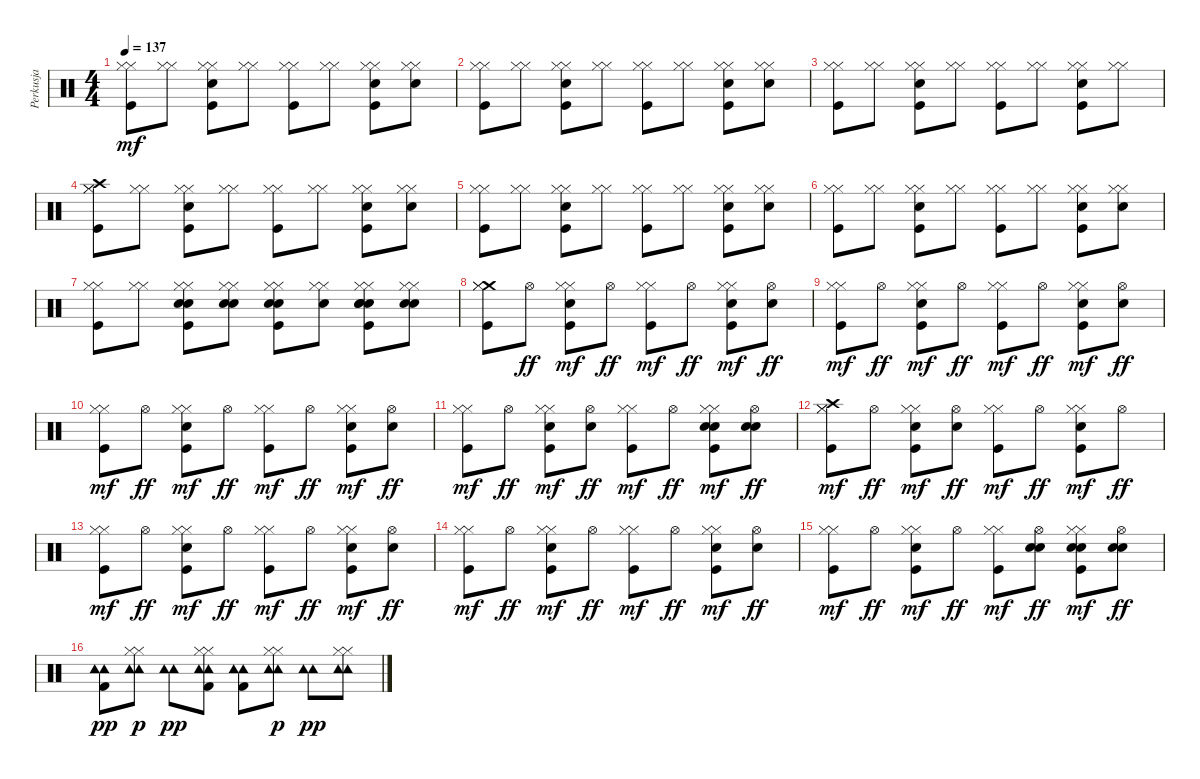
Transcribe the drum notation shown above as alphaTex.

\track ("Perkusja" "Perkusja") {instrument percussion}
\staff {score}
\articulation defaults
\ts (4 4)
\tempo 137
\clef neutral
\ks c
("Kick (hit)" "Hi-Hat (closed)" "Hi-Hat (closed)").8{dy mf} ("Hi-Hat (closed)" "Hi-Hat (closed)").8 ("Electric Snare (hit)" "Kick (hit)" "Hi-Hat (closed)" "Hi-Hat (closed)").8 ("Hi-Hat (closed)" "Hi-Hat (closed)").8 ("Kick (hit)" "Hi-Hat (closed)" "Hi-Hat (closed)").8 ("Hi-Hat (closed)" "Hi-Hat (closed)").8 ("Electric Snare (hit)" "Kick (hit)" "Hi-Hat (closed)" "Hi-Hat (closed)").8 ("Electric Snare (hit)" "Hi-Hat (closed)" "Hi-Hat (closed)").8 |
("Kick (hit)" "Hi-Hat (closed)" "Hi-Hat (closed)").8 ("Hi-Hat (closed)" "Hi-Hat (closed)").8 ("Electric Snare (hit)" "Kick (hit)" "Hi-Hat (closed)" "Hi-Hat (closed)").8 ("Hi-Hat (closed)" "Hi-Hat (closed)").8 ("Kick (hit)" "Hi-Hat (closed)" "Hi-Hat (closed)").8 ("Hi-Hat (closed)" "Hi-Hat (closed)").8 ("Electric Snare (hit)" "Kick (hit)" "Hi-Hat (closed)" "Hi-Hat (closed)").8 ("Electric Snare (hit)" "Hi-Hat (closed)" "Hi-Hat (closed)").8 |
("Kick (hit)" "Hi-Hat (closed)" "Hi-Hat (closed)").8 ("Hi-Hat (closed)" "Hi-Hat (closed)").8 ("Electric Snare (hit)" "Kick (hit)" "Hi-Hat (closed)" "Hi-Hat (closed)").8 ("Hi-Hat (closed)" "Hi-Hat (closed)").8 ("Kick (hit)" "Hi-Hat (closed)" "Hi-Hat (closed)").8 ("Hi-Hat (closed)" "Hi-Hat (closed)").8 ("Electric Snare (hit)" "Kick (hit)" "Hi-Hat (closed)" "Hi-Hat (closed)").8 ("Hi-Hat (closed)" "Hi-Hat (closed)").8 |
("Crash high (hit)" "Kick (hit)" "Hi-Hat (closed)" "Hi-Hat (closed)").8 ("Hi-Hat (closed)" "Hi-Hat (closed)").8 ("Electric Snare (hit)" "Kick (hit)" "Hi-Hat (closed)" "Hi-Hat (closed)").8 ("Hi-Hat (closed)" "Hi-Hat (closed)").8 ("Kick (hit)" "Hi-Hat (closed)" "Hi-Hat (closed)").8 ("Hi-Hat (closed)" "Hi-Hat (closed)").8 ("Electric Snare (hit)" "Kick (hit)" "Hi-Hat (closed)" "Hi-Hat (closed)").8 ("Electric Snare (hit)" "Hi-Hat (closed)" "Hi-Hat (closed)").8 |
("Kick (hit)" "Hi-Hat (closed)" "Hi-Hat (closed)").8 ("Hi-Hat (closed)" "Hi-Hat (closed)").8 ("Electric Snare (hit)" "Kick (hit)" "Hi-Hat (closed)" "Hi-Hat (closed)").8 ("Hi-Hat (closed)" "Hi-Hat (closed)").8 ("Kick (hit)" "Hi-Hat (closed)" "Hi-Hat (closed)").8 ("Hi-Hat (closed)" "Hi-Hat (closed)").8 ("Electric Snare (hit)" "Kick (hit)" "Hi-Hat (closed)" "Hi-Hat (closed)").8 ("Electric Snare (hit)" "Hi-Hat (closed)" "Hi-Hat (closed)").8 |
("Kick (hit)" "Hi-Hat (closed)" "Hi-Hat (closed)").8 ("Hi-Hat (closed)" "Hi-Hat (closed)").8 ("Electric Snare (hit)" "Kick (hit)" "Hi-Hat (closed)" "Hi-Hat (closed)").8 ("Hi-Hat (closed)" "Hi-Hat (closed)").8 ("Kick (hit)" "Hi-Hat (closed)" "Hi-Hat (closed)").8 ("Hi-Hat (closed)" "Hi-Hat (closed)").8 ("Electric Snare (hit)" "Kick (hit)" "Hi-Hat (closed)" "Hi-Hat (closed)").8 ("Electric Snare (hit)" "Hi-Hat (closed)" "Hi-Hat (closed)").8 |
("Kick (hit)" "Hi-Hat (closed)" "Hi-Hat (closed)").8 ("Hi-Hat (closed)" "Hi-Hat (closed)").8 ("Electric Snare (hit)" "Kick (hit)" "Hi-Hat (closed)" "Electric Snare (hit)" "Hi-Hat (closed)").8 ("Electric Snare (hit)" "Hi-Hat (closed)" "Electric Snare (hit)" "Hi-Hat (closed)").8 ("Electric Snare (hit)" "Kick (hit)" "Hi-Hat (closed)" "Electric Snare (hit)" "Hi-Hat (closed)").8 ("Electric Snare (hit)" "Hi-Hat (closed)" "Hi-Hat (closed)").8 ("Electric Snare (hit)" "Electric Snare (hit)" "Kick (hit)" "Hi-Hat (closed)" "Electric Snare (hit)" "Hi-Hat (closed)").8 ("Electric Snare (hit)" "Hi-Hat (closed)" "Electric Snare (hit)" "Hi-Hat (closed)").8 |
("Crash medium (hit)" "Kick (hit)" "Hi-Hat (closed)" "Hi-Hat (closed)").8 "Hi-Hat (open)".8{dy ff} ("Electric Snare (hit)" "Kick (hit)" "Hi-Hat (closed)" "Hi-Hat (closed)").8{dy mf} "Hi-Hat (open)".8{dy ff} ("Kick (hit)" "Hi-Hat (closed)" "Hi-Hat (closed)").8{dy mf} "Hi-Hat (open)".8{dy ff} ("Electric Snare (hit)" "Kick (hit)" "Hi-Hat (closed)" "Hi-Hat (closed)").8{dy mf} ("Electric Snare (hit)" "Hi-Hat (open)").8{dy ff} |
("Kick (hit)" "Hi-Hat (closed)" "Hi-Hat (closed)").8{dy mf} "Hi-Hat (open)".8{dy ff} ("Electric Snare (hit)" "Kick (hit)" "Hi-Hat (closed)" "Hi-Hat (closed)").8{dy mf} "Hi-Hat (open)".8{dy ff} ("Kick (hit)" "Hi-Hat (closed)" "Hi-Hat (closed)").8{dy mf} "Hi-Hat (open)".8{dy ff} ("Electric Snare (hit)" "Kick (hit)" "Hi-Hat (closed)" "Hi-Hat (closed)").8{dy mf} ("Electric Snare (hit)" "Hi-Hat (open)").8{dy ff} |
("Kick (hit)" "Hi-Hat (closed)" "Hi-Hat (closed)").8{dy mf} "Hi-Hat (open)".8{dy ff} ("Electric Snare (hit)" "Kick (hit)" "Hi-Hat (closed)" "Hi-Hat (closed)").8{dy mf} "Hi-Hat (open)".8{dy ff} ("Kick (hit)" "Hi-Hat (closed)" "Hi-Hat (closed)").8{dy mf} "Hi-Hat (open)".8{dy ff} ("Electric Snare (hit)" "Kick (hit)" "Hi-Hat (closed)" "Hi-Hat (closed)").8{dy mf} ("Electric Snare (hit)" "Hi-Hat (open)").8{dy ff} |
("Kick (hit)" "Hi-Hat (closed)" "Hi-Hat (closed)").8{dy mf} "Hi-Hat (open)".8{dy ff} ("Electric Snare (hit)" "Kick (hit)" "Hi-Hat (closed)" "Hi-Hat (closed)").8{dy mf} ("Electric Snare (hit)" "Hi-Hat (open)").8{dy ff} ("Kick (hit)" "Hi-Hat (closed)" "Hi-Hat (closed)").8{dy mf} "Hi-Hat (open)".8{dy ff} ("Electric Snare (hit)" "Kick (hit)" "Hi-Hat (closed)" "Electric Snare (hit)" "Hi-Hat (closed)").8{dy mf} ("Electric Snare (hit)" "Hi-Hat (open)" "Electric Snare (hit)").8{dy ff} |
("Crash high (hit)" "Kick (hit)" "Hi-Hat (closed)" "Hi-Hat (closed)").8{dy mf} "Hi-Hat (open)".8{dy ff} ("Electric Snare (hit)" "Kick (hit)" "Hi-Hat (closed)" "Hi-Hat (closed)").8{dy mf} ("Electric Snare (hit)" "Hi-Hat (open)").8{dy ff} ("Kick (hit)" "Hi-Hat (closed)" "Hi-Hat (closed)").8{dy mf} "Hi-Hat (open)".8{dy ff} ("Electric Snare (hit)" "Kick (hit)" "Hi-Hat (closed)" "Hi-Hat (closed)").8{dy mf} "Hi-Hat (open)".8{dy ff} |
("Kick (hit)" "Hi-Hat (closed)" "Hi-Hat (closed)").8{dy mf} "Hi-Hat (open)".8{dy ff} ("Electric Snare (hit)" "Kick (hit)" "Hi-Hat (closed)" "Hi-Hat (closed)").8{dy mf} "Hi-Hat (open)".8{dy ff} ("Kick (hit)" "Hi-Hat (closed)" "Hi-Hat (closed)").8{dy mf} "Hi-Hat (open)".8{dy ff} ("Electric Snare (hit)" "Kick (hit)" "Hi-Hat (closed)" "Hi-Hat (closed)").8{dy mf} ("Electric Snare (hit)" "Hi-Hat (open)").8{dy ff} |
("Kick (hit)" "Hi-Hat (closed)" "Hi-Hat (closed)").8{dy mf} "Hi-Hat (open)".8{dy ff} ("Electric Snare (hit)" "Kick (hit)" "Hi-Hat (closed)" "Hi-Hat (closed)").8{dy mf} "Hi-Hat (open)".8{dy ff} ("Kick (hit)" "Hi-Hat (closed)" "Hi-Hat (closed)").8{dy mf} "Hi-Hat (open)".8{dy ff} ("Electric Snare (hit)" "Kick (hit)" "Hi-Hat (closed)" "Hi-Hat (closed)").8{dy mf} ("Electric Snare (hit)" "Hi-Hat (open)").8{dy ff} |
("Kick (hit)" "Hi-Hat (closed)" "Hi-Hat (closed)").8{dy mf} "Hi-Hat (open)".8{dy ff} ("Electric Snare (hit)" "Kick (hit)" "Hi-Hat (closed)" "Hi-Hat (closed)").8{dy mf} "Hi-Hat (open)".8{dy ff} ("Kick (hit)" "Hi-Hat (closed)" "Hi-Hat (closed)").8{dy mf} ("Electric Snare (hit)" "Hi-Hat (open)" "Electric Snare (hit)").8{dy ff} ("Electric Snare (hit)" "Kick (hit)" "Hi-Hat (closed)" "Electric Snare (hit)" "Hi-Hat (closed)").8{dy mf} ("Electric Snare (hit)" "Hi-Hat (open)" "Electric Snare (hit)").8{dy ff} |
("Tambourine (hit)" "Kick (hit) 2" "Tambourine (hit)").8{dy pp} ("Tambourine (hit)" "Hi-Hat (closed)" "Tambourine (hit)" "Hi-Hat (closed)").8{dy p} ("Tambourine (hit)" "Tambourine (hit)").8{dy pp} ("Tambourine (hit)" "Hi-Hat (closed)" "Kick (hit) 2" "Hi-Hat (closed)" "Tambourine (hit)").8 ("Tambourine (hit)" "Kick (hit) 2" "Tambourine (hit)").8 ("Tambourine (hit)" "Hi-Hat (closed)" "Tambourine (hit)" "Hi-Hat (closed)").8{dy p} ("Tambourine (hit)" "Tambourine (hit)").8{dy pp} ("Tambourine (hit)" "Hi-Hat (closed)" "Hi-Hat (closed)" "Tambourine (hit)").8
